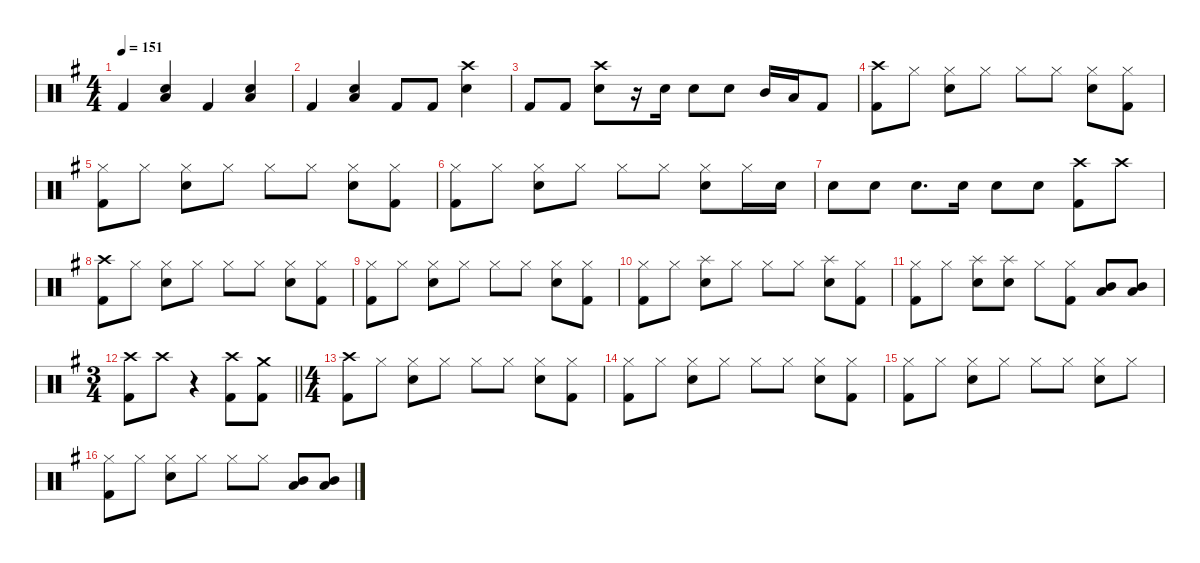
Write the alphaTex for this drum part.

\defaultSystemsLayout 4
\hideDynamics
\bracketExtendMode nobrackets
\singleTrackTrackNamePolicy hidden
\multiTrackTrackNamePolicy hidden
\otherSystemsTrackNameOrientation horizontal
\track ("Lars Ulrich" "drm.") {instrument percussion}
\staff {score}
\articulation defaults
\ts (4 4)
\tempo 151
\clef neutral
\ks eminor "Kick (hit) 2"{acc forcenatural}.4{dy f beam Up}
("Low Floor Tom (hit)"{acc forcenatural} "Snare (hit) 2"{acc forcenatural}).4{beam Up} "Kick (hit) 2"{acc forcenatural}.4{beam Up} ("Low Floor Tom (hit)"{acc forcenatural} "Snare (hit) 2"{acc forcenatural}).4{beam Up} |
"Kick (hit) 2"{acc forcenatural}.4{beam Up} ("Low Floor Tom (hit)"{acc forcenatural} "Snare (hit) 2"{acc forcenatural}).4{beam Up} "Kick (hit) 2"{acc forcenatural}.8{beam Up} "Kick (hit) 2"{acc forcenatural}.8{beam Up} ("Crash high (hit)"{acc forcenatural} "Snare (hit) 2"{acc forcenatural}).4{beam Down} |
"Kick (hit) 2"{acc forcenatural}.8{beam Up} "Kick (hit) 2"{acc forcenatural}.8{beam Up} ("Crash high (hit)"{acc forcenatural} "Snare (hit) 2"{acc forcenatural}).8{beam Down} r.16{beam Down} "Snare (hit) 2"{acc forcenatural}.16{beam Down} "Snare (hit) 2"{acc forcenatural}.8{beam Down} "Snare (hit) 2"{acc forcenatural}.8{beam Down} "Mid Tom (hit)"{acc forcenatural}.16{beam Up} "Low Tom (hit)"{acc forcenatural}.16{beam Up} "Kick (hit) 2"{acc forcenatural}.8{beam Up} |
("Crash high (hit)"{acc forcenatural} "Kick (hit) 2"{acc forcenatural}).8{beam Down} "Hi-Hat (closed)"{acc forcenatural}.8{beam Down} ("Hi-Hat (closed)"{acc forcenatural} "Snare (hit) 2"{acc forcenatural}).8{beam Down} "Hi-Hat (closed)"{acc forcenatural}.8{beam Down} "Hi-Hat (closed)"{acc forcenatural}.8{beam Down} "Hi-Hat (closed)"{acc forcenatural}.8{beam Down} ("Hi-Hat (closed)"{acc forcenatural} "Snare (hit) 2"{acc forcenatural}).8{beam Down} ("Hi-Hat (closed)"{acc forcenatural} "Kick (hit) 2"{acc forcenatural}).8{beam Down} |
("Hi-Hat (closed)"{acc forcenatural} "Kick (hit) 2"{acc forcenatural}).8{beam Down} "Hi-Hat (closed)"{acc forcenatural}.8{beam Down} ("Hi-Hat (closed)"{acc forcenatural} "Snare (hit) 2"{acc forcenatural}).8{beam Down} "Hi-Hat (closed)"{acc forcenatural}.8{beam Down} "Hi-Hat (closed)"{acc forcenatural}.8{beam Down} "Hi-Hat (closed)"{acc forcenatural}.8{beam Down} ("Hi-Hat (closed)"{acc forcenatural} "Snare (hit) 2"{acc forcenatural}).8{beam Down} ("Hi-Hat (closed)"{acc forcenatural} "Kick (hit) 2"{acc forcenatural}).8{beam Down} |
("Hi-Hat (closed)"{acc forcenatural} "Kick (hit) 2"{acc forcenatural}).8{beam Down} "Hi-Hat (closed)"{acc forcenatural}.8{beam Down} ("Hi-Hat (closed)"{acc forcenatural} "Snare (hit) 2"{acc forcenatural}).8{beam Down} "Hi-Hat (closed)"{acc forcenatural}.8{beam Down} "Hi-Hat (closed)"{acc forcenatural}.8{beam Down} "Hi-Hat (closed)"{acc forcenatural}.8{beam Down} ("Hi-Hat (closed)"{acc forcenatural} "Snare (hit) 2"{acc forcenatural}).8{beam Down} "Hi-Hat (closed)"{acc forcenatural}.16{beam Down} "Snare (hit) 2"{acc forcenatural}.16{beam Down} |
"Snare (hit) 2"{acc forcenatural}.8{beam Down} "Snare (hit) 2"{acc forcenatural}.8{beam Down} "Snare (hit) 2"{acc forcenatural}.8{d beam Down} "Snare (hit) 2"{acc forcenatural}.16{beam Down} "Snare (hit) 2"{acc forcenatural}.8{beam Down} "Snare (hit) 2"{acc forcenatural}.8{beam Down} ("Crash high (hit)"{acc forcenatural} "Kick (hit) 2"{acc forcenatural}).8{beam Down} "Crash high (hit)"{acc forcenatural}.8{beam Down} |
("Crash high (hit)"{acc forcenatural} "Kick (hit) 2"{acc forcenatural}).8{beam Down} "Hi-Hat (closed)"{acc forcenatural}.8{beam Down} ("Hi-Hat (closed)"{acc forcenatural} "Snare (hit) 2"{acc forcenatural}).8{beam Down} "Hi-Hat (closed)"{acc forcenatural}.8{beam Down} "Hi-Hat (closed)"{acc forcenatural}.8{beam Down} "Hi-Hat (closed)"{acc forcenatural}.8{beam Down} ("Hi-Hat (closed)"{acc forcenatural} "Snare (hit) 2"{acc forcenatural}).8{beam Down} ("Hi-Hat (closed)"{acc forcenatural} "Kick (hit) 2"{acc forcenatural}).8{beam Down} |
("Hi-Hat (closed)"{acc forcenatural} "Kick (hit) 2"{acc forcenatural}).8{beam Down} "Hi-Hat (closed)"{acc forcenatural}.8{beam Down} ("Hi-Hat (closed)"{acc forcenatural} "Snare (hit) 2"{acc forcenatural}).8{beam Down} "Hi-Hat (closed)"{acc forcenatural}.8{beam Down} "Hi-Hat (closed)"{acc forcenatural}.8{beam Down} "Hi-Hat (closed)"{acc forcenatural}.8{beam Down} ("Hi-Hat (closed)"{acc forcenatural} "Snare (hit) 2"{acc forcenatural}).8{beam Down} ("Hi-Hat (closed)"{acc forcenatural} "Kick (hit) 2"{acc forcenatural}).8{beam Down} |
("Hi-Hat (closed)"{acc forcenatural} "Kick (hit) 2"{acc forcenatural}).8{beam Down} "Hi-Hat (closed)"{acc forcenatural}.8{beam Down} ("Splash (hit)"{acc forcenatural} "Snare (hit) 2"{acc forcenatural}).8{beam Down} "Hi-Hat (closed)"{acc forcenatural}.8{beam Down} "Hi-Hat (closed)"{acc forcenatural}.8{beam Down} "Hi-Hat (closed)"{acc forcenatural}.8{beam Down} ("Splash (hit)"{acc forcenatural} "Snare (hit) 2"{acc forcenatural}).8{beam Down} ("Hi-Hat (closed)"{acc forcenatural} "Kick (hit) 2"{acc forcenatural}).8{beam Down} |
("Hi-Hat (closed)"{acc forcenatural} "Kick (hit) 2"{acc forcenatural}).8{beam Down} "Hi-Hat (closed)"{acc forcenatural}.8{beam Down} ("Splash (hit)"{acc forcenatural} "Snare (hit) 2"{acc forcenatural}).8{beam Down} ("Splash (hit)"{acc forcenatural} "Snare (hit) 2"{acc forcenatural}).8{beam Down} "Hi-Hat (closed)"{acc forcenatural}.8{beam Down} ("Hi-Hat (closed)"{acc forcenatural} "Kick (hit) 2"{acc forcenatural}).8{beam Down} ("Mid Tom (hit)"{acc forcenatural} "Low Tom (hit)"{acc forcenatural}).8{beam Up} ("Mid Tom (hit)"{acc forcenatural} "Low Tom (hit)"{acc forcenatural}).8{beam Up} |
\ts (3 4)
\beaming (8 2 2 2)
\barLineRight lightlight
("Crash high (hit)"{acc forcenatural} "Kick (hit) 2"{acc forcenatural}).8{beam Down} "Crash high (hit)"{acc forcenatural}.8{beam Down} r.4{beam Down} ("Crash high (hit)"{acc forcenatural} "Kick (hit) 2"{acc forcenatural}).8{beam Down} ("Crash medium (hit)"{acc forcenatural} "Kick (hit) 2"{acc forcenatural}).8{beam Down} |
\ts (4 4)
\beaming (8 2 2 2 2)
("Crash high (hit)"{acc forcenatural} "Kick (hit) 2"{acc forcenatural}).8{beam Down} "Hi-Hat (closed)"{acc forcenatural}.8{beam Down} ("Hi-Hat (closed)"{acc forcenatural} "Snare (hit) 2"{acc forcenatural}).8{beam Down} "Hi-Hat (closed)"{acc forcenatural}.8{beam Down} "Hi-Hat (closed)"{acc forcenatural}.8{beam Down} "Hi-Hat (closed)"{acc forcenatural}.8{beam Down} ("Hi-Hat (closed)"{acc forcenatural} "Snare (hit) 2"{acc forcenatural}).8{beam Down} ("Hi-Hat (closed)"{acc forcenatural} "Kick (hit) 2"{acc forcenatural}).8{beam Down} |
("Hi-Hat (closed)"{acc forcenatural} "Kick (hit) 2"{acc forcenatural}).8{beam Down} "Hi-Hat (closed)"{acc forcenatural}.8{beam Down} ("Hi-Hat (closed)"{acc forcenatural} "Snare (hit) 2"{acc forcenatural}).8{beam Down} "Hi-Hat (closed)"{acc forcenatural}.8{beam Down} "Hi-Hat (closed)"{acc forcenatural}.8{beam Down} "Hi-Hat (closed)"{acc forcenatural}.8{beam Down} ("Hi-Hat (closed)"{acc forcenatural} "Snare (hit) 2"{acc forcenatural}).8{beam Down} ("Hi-Hat (closed)"{acc forcenatural} "Kick (hit) 2"{acc forcenatural}).8{beam Down} |
("Hi-Hat (closed)"{acc forcenatural} "Kick (hit) 2"{acc forcenatural}).8{beam Down} "Hi-Hat (closed)"{acc forcenatural}.8{beam Down} ("Hi-Hat (closed)"{acc forcenatural} "Snare (hit) 2"{acc forcenatural}).8{beam Down} "Hi-Hat (closed)"{acc forcenatural}.8{beam Down} "Hi-Hat (closed)"{acc forcenatural}.8{beam Down} "Hi-Hat (closed)"{acc forcenatural}.8{beam Down} ("Hi-Hat (closed)"{acc forcenatural} "Snare (hit) 2"{acc forcenatural}).8{beam Down} "Hi-Hat (closed)"{acc forcenatural}.8{beam Down} |
("Hi-Hat (closed)"{acc forcenatural} "Kick (hit) 2"{acc forcenatural}).8{beam Down} "Hi-Hat (closed)"{acc forcenatural}.8{beam Down} ("Hi-Hat (closed)"{acc forcenatural} "Snare (hit) 2"{acc forcenatural}).8{beam Down} "Hi-Hat (closed)"{acc forcenatural}.8{beam Down} "Hi-Hat (closed)"{acc forcenatural}.8{beam Down} "Hi-Hat (closed)"{acc forcenatural}.8{beam Down} ("Low Tom (hit)"{acc forcenatural} "Mid Tom (hit)"{acc forcenatural}).8{beam Up} ("Low Tom (hit)"{acc forcenatural} "Mid Tom (hit)"{acc forcenatural}).8{beam Up}
